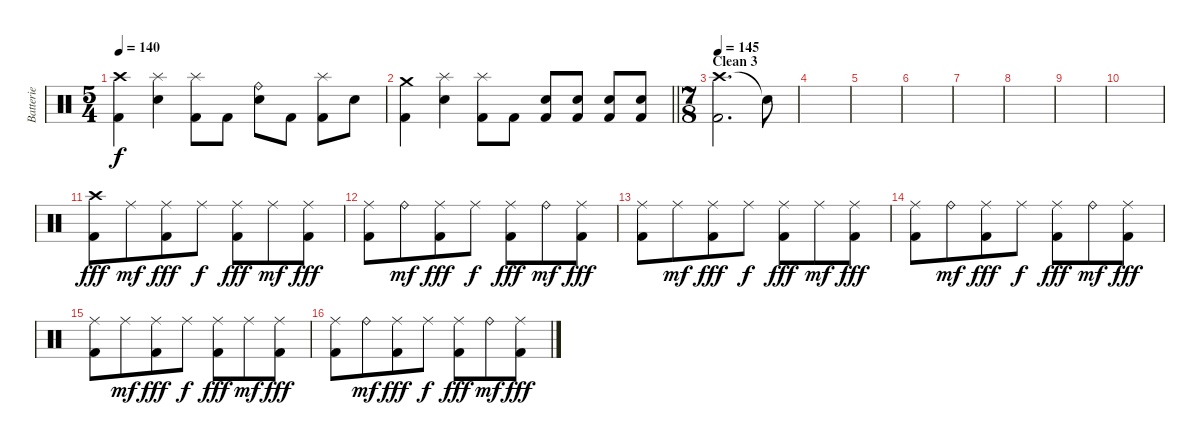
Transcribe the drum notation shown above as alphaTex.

\track ("Batterie" "Batterie") {instrument percussion}
\staff {score}
\articulation defaults
\ts (5 4)
\tempo 140
\clef neutral
\ks c
("Crash high (hit)" "Kick (hit) 2").4{dy f} ("Splash (hit)" "Electric Snare (hit)").4 ("Splash (hit)" "Kick (hit) 2").8 "Kick (hit) 2".8 ("Ride (bell)" "Electric Snare (hit)").8 "Kick (hit) 2".8 ("Splash (hit)" "Kick (hit) 2").8 "Electric Snare (hit)".8 |
\barLineRight lightlight
("Crash medium (hit)" "Kick (hit) 2").4 ("Splash (hit)" "Electric Snare (hit)").4 ("Splash (hit)" "Kick (hit) 2").8 "Kick (hit) 2".8 ("Electric Snare (hit)" "Kick (hit) 2").8 ("Electric Snare (hit)" "Kick (hit) 2").8 ("Electric Snare (hit)" "Kick (hit) 2").8 ("Electric Snare (hit)" "Kick (hit) 2").8 |
\ts (7 8)
\section ("" "Clean 3")
\tempo 145
("Crash high (hit)" "Kick (hit) 2").2{d} "Snare (hit)"{t}.8 |
|
|
|
|
|
|
|
("Crash high (hit)" "Kick (hit) 2").8{dy fff} "Ride (middle)".8{dy mf} ("Ride (middle)" "Kick (hit) 2").8{dy fff} "Ride (middle)".8{dy f} ("Ride (middle)" "Kick (hit) 2").8{dy fff} "Ride (middle)".8{dy mf} ("Ride (middle)" "Kick (hit) 2").8{dy fff} |
("Ride (middle)" "Kick (hit) 2").8 "Ride (bell)".8{dy mf} ("Ride (middle)" "Kick (hit) 2").8{dy fff} "Ride (middle)".8{dy f} ("Ride (middle)" "Kick (hit) 2").8{dy fff} "Ride (bell)".8{dy mf} ("Ride (middle)" "Kick (hit) 2").8{dy fff} |
("Ride (middle)" "Kick (hit) 2").8 "Ride (middle)".8{dy mf} ("Ride (middle)" "Kick (hit) 2").8{dy fff} "Ride (middle)".8{dy f} ("Ride (middle)" "Kick (hit) 2").8{dy fff} "Ride (middle)".8{dy mf} ("Ride (middle)" "Kick (hit) 2").8{dy fff} |
("Ride (middle)" "Kick (hit) 2").8 "Ride (bell)".8{dy mf} ("Ride (middle)" "Kick (hit) 2").8{dy fff} "Ride (middle)".8{dy f} ("Ride (middle)" "Kick (hit) 2").8{dy fff} "Ride (bell)".8{dy mf} ("Ride (middle)" "Kick (hit) 2").8{dy fff} |
("Ride (middle)" "Kick (hit) 2").8 "Ride (middle)".8{dy mf} ("Ride (middle)" "Kick (hit) 2").8{dy fff} "Ride (middle)".8{dy f} ("Ride (middle)" "Kick (hit) 2").8{dy fff} "Ride (middle)".8{dy mf} ("Ride (middle)" "Kick (hit) 2").8{dy fff} |
("Ride (middle)" "Kick (hit) 2").8 "Ride (bell)".8{dy mf} ("Ride (middle)" "Kick (hit) 2").8{dy fff} "Ride (middle)".8{dy f} ("Ride (middle)" "Kick (hit) 2").8{dy fff} "Ride (bell)".8{dy mf} ("Ride (middle)" "Kick (hit) 2").8{dy fff}
